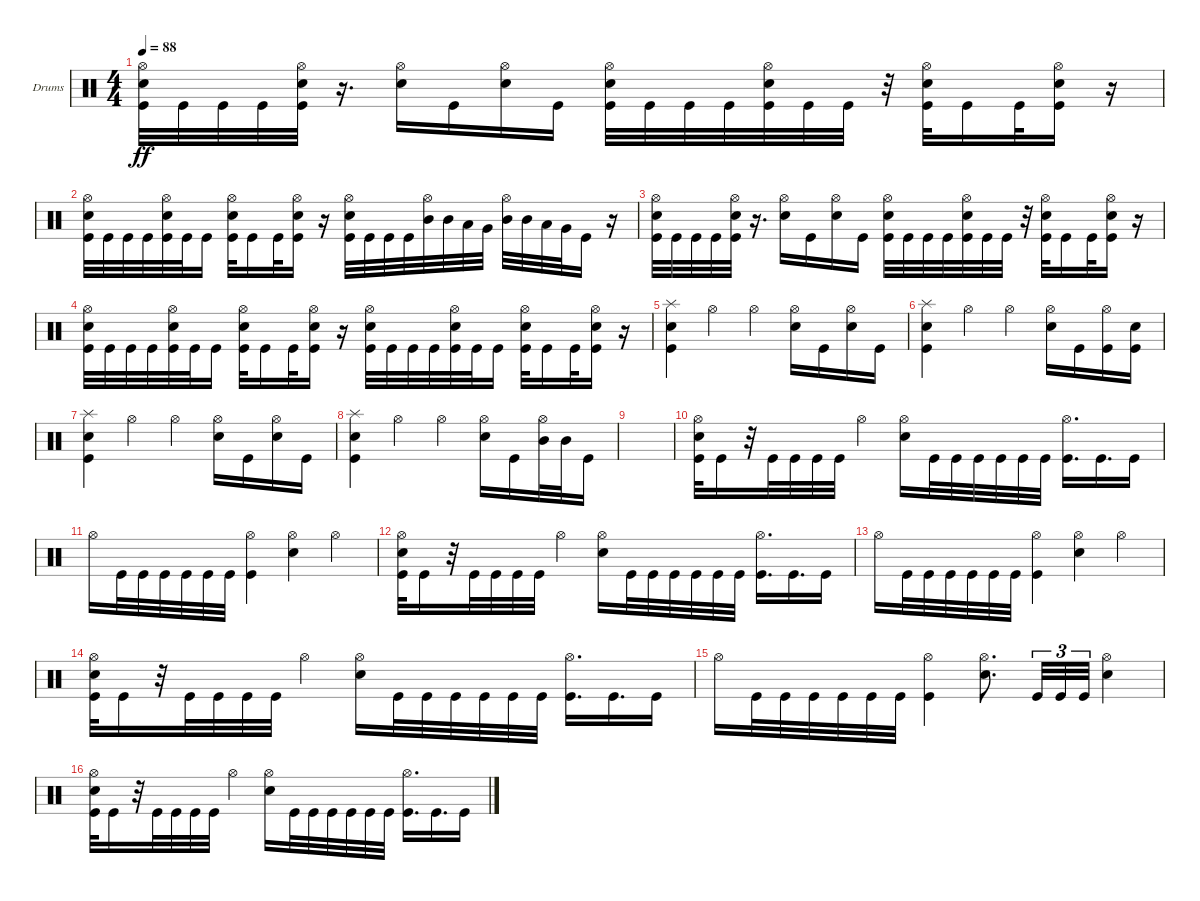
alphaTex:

\defaultSystemsLayout 4
\bracketExtendMode groupsimilarinstruments
\firstSystemTrackNameOrientation horizontal
\otherSystemsTrackNameOrientation horizontal
\track ("Drumkit" "Drums") {instrument percussion}
\staff {score}
\articulation defaults
\ts (4 4)
\tempo 88
\clef neutral
\ks c
("Snare (hit) 2" "Kick (hit)" "Hi-Hat (open)").32{dy ff} "Kick (hit)".32 "Kick (hit)".32 "Kick (hit)".32 ("Snare (hit) 2" "Kick (hit)" "Hi-Hat (open)").32 r.16{d} ("Snare (hit) 2" "Hi-Hat (open)").16 "Kick (hit)".16 ("Snare (hit) 2" "Hi-Hat (open)").16 "Kick (hit)".16 ("Snare (hit) 2" "Kick (hit)" "Hi-Hat (open)").32 "Kick (hit)".32 "Kick (hit)".32 "Kick (hit)".32 ("Snare (hit) 2" "Kick (hit)" "Hi-Hat (open)").32 "Kick (hit)".32 "Kick (hit)".32 r.32 ("Snare (hit) 2" "Kick (hit)" "Hi-Hat (open)").32 "Kick (hit)".16 "Kick (hit)".32 ("Kick (hit)" "Snare (hit) 2" "Hi-Hat (open)").16 r.16 |
("Kick (hit)" "Snare (hit) 2" "Hi-Hat (open)").32 "Kick (hit)".32 "Kick (hit)".32 "Kick (hit)".32 ("Kick (hit)" "Snare (hit) 2" "Hi-Hat (open)").32 "Kick (hit)".32 "Kick (hit)".16 ("Kick (hit)" "Snare (hit) 2" "Hi-Hat (open)").32 "Kick (hit)".16 "Kick (hit)".32 ("Kick (hit)" "Snare (hit) 2" "Hi-Hat (open)").16 r.16 ("Kick (hit)" "Snare (hit) 2" "Hi-Hat (open)").32 "Kick (hit)".32 "Kick (hit)".32 "Kick (hit)".32 ("Hi-Hat (open)" "Mid Tom (hit)").32 "Mid Tom (hit)".32 "Low Tom (hit)".32 "Very Low Tom (hit)".32 ("Hi-Hat (open)" "Mid Tom (hit)").32 "Mid Tom (hit)".32 "Low Tom (hit)".32 "Very Low Tom (hit)".32 "Kick (hit)".16 r.16 |
("Snare (hit) 2" "Kick (hit)" "Hi-Hat (open)").32 "Kick (hit)".32 "Kick (hit)".32 "Kick (hit)".32 ("Snare (hit) 2" "Kick (hit)" "Hi-Hat (open)").32 r.16{d} ("Snare (hit) 2" "Hi-Hat (open)").16 "Kick (hit)".16 ("Snare (hit) 2" "Hi-Hat (open)").16 "Kick (hit)".16 ("Snare (hit) 2" "Kick (hit)" "Hi-Hat (open)").32 "Kick (hit)".32 "Kick (hit)".32 "Kick (hit)".32 ("Snare (hit) 2" "Kick (hit)" "Hi-Hat (open)").32 "Kick (hit)".32 "Kick (hit)".32 r.32 ("Snare (hit) 2" "Kick (hit)" "Hi-Hat (open)").32 "Kick (hit)".16 "Kick (hit)".32 ("Kick (hit)" "Snare (hit) 2" "Hi-Hat (open)").16 r.16 |
("Kick (hit)" "Snare (hit) 2" "Hi-Hat (open)").32 "Kick (hit)".32 "Kick (hit)".32 "Kick (hit)".32 ("Kick (hit)" "Snare (hit) 2" "Hi-Hat (open)").32 "Kick (hit)".32 "Kick (hit)".16 ("Kick (hit)" "Snare (hit) 2" "Hi-Hat (open)").32 "Kick (hit)".16 "Kick (hit)".32 ("Kick (hit)" "Snare (hit) 2" "Hi-Hat (open)").16 r.16 ("Kick (hit)" "Snare (hit) 2" "Hi-Hat (open)").32 "Kick (hit)".32 "Kick (hit)".32 "Kick (hit)".32 ("Kick (hit)" "Snare (hit) 2" "Hi-Hat (open)").32 "Kick (hit)".32 "Kick (hit)".16 ("Kick (hit)" "Snare (hit) 2" "Hi-Hat (open)").32 "Kick (hit)".16 "Kick (hit)".32 ("Kick (hit)" "Snare (hit) 2" "Hi-Hat (open)").16 r.16 |
("Kick (hit)" "Snare (hit) 2" "Splash (hit)").4 "Hi-Hat (open)".4 "Hi-Hat (open)".4 ("Hi-Hat (open)" "Snare (hit) 2").16 "Kick (hit)".16 ("Snare (hit) 2" "Hi-Hat (open)").16 "Kick (hit)".16 |
("Kick (hit)" "Snare (hit) 2" "Splash (hit)").4 "Hi-Hat (open)".4 "Hi-Hat (open)".4 ("Hi-Hat (open)" "Snare (hit) 2").16 "Kick (hit)".16 ("Hi-Hat (open)" "Kick (hit)").16 ("Kick (hit)" "Snare (hit) 2").16 |
("Kick (hit)" "Snare (hit) 2" "Splash (hit)").4 "Hi-Hat (open)".4 "Hi-Hat (open)".4 ("Hi-Hat (open)" "Snare (hit) 2").16 "Kick (hit)".16 ("Snare (hit) 2" "Hi-Hat (open)").16 "Kick (hit)".16 |
("Kick (hit)" "Snare (hit) 2" "Splash (hit)").4 "Hi-Hat (open)".4 "Hi-Hat (open)".4 ("Hi-Hat (open)" "Snare (hit) 2").16 "Kick (hit)".16 ("Hi-Hat (open)" "Mid Tom (hit)").32 "Mid Tom (hit)".32 "Kick (hit)".16 |
|
("Kick (hit)" "Snare (hit) 2" "Hi-Hat (open)").32 "Kick (hit)".16 r.32 "Kick (hit)".32 "Kick (hit)".32 "Kick (hit)".32 "Kick (hit)".32 "Hi-Hat (open)".4 ("Snare (hit) 2" "Hi-Hat (open)").16 "Kick (hit)".32 "Kick (hit)".32 "Kick (hit)".32 "Kick (hit)".32 "Kick (hit)".32 "Kick (hit)".32 ("Kick (hit)" "Hi-Hat (open)").16{d} "Kick (hit)".16{d} "Kick (hit)".16 |
"Hi-Hat (open)".16 "Kick (hit)".32 "Kick (hit)".32 "Kick (hit)".32 "Kick (hit)".32 "Kick (hit)".32 "Kick (hit)".32 ("Kick (hit)" "Hi-Hat (open)").4 ("Snare (hit) 2" "Hi-Hat (open)").4 "Hi-Hat (open)".4 |
("Kick (hit)" "Snare (hit) 2" "Hi-Hat (open)").32 "Kick (hit)".16 r.32 "Kick (hit)".32 "Kick (hit)".32 "Kick (hit)".32 "Kick (hit)".32 "Hi-Hat (open)".4 ("Snare (hit) 2" "Hi-Hat (open)").16 "Kick (hit)".32 "Kick (hit)".32 "Kick (hit)".32 "Kick (hit)".32 "Kick (hit)".32 "Kick (hit)".32 ("Kick (hit)" "Hi-Hat (open)").16{d} "Kick (hit)".16{d} "Kick (hit)".16 |
"Hi-Hat (open)".16 "Kick (hit)".32 "Kick (hit)".32 "Kick (hit)".32 "Kick (hit)".32 "Kick (hit)".32 "Kick (hit)".32 ("Kick (hit)" "Hi-Hat (open)").4 ("Snare (hit) 2" "Hi-Hat (open)").4 "Hi-Hat (open)".4 |
("Kick (hit)" "Snare (hit) 2" "Hi-Hat (open)").32 "Kick (hit)".16 r.32 "Kick (hit)".32 "Kick (hit)".32 "Kick (hit)".32 "Kick (hit)".32 "Hi-Hat (open)".4 ("Snare (hit) 2" "Hi-Hat (open)").16 "Kick (hit)".32 "Kick (hit)".32 "Kick (hit)".32 "Kick (hit)".32 "Kick (hit)".32 "Kick (hit)".32 ("Kick (hit)" "Hi-Hat (open)").16{d} "Kick (hit)".16{d} "Kick (hit)".16 |
"Hi-Hat (open)".16 "Kick (hit)".32 "Kick (hit)".32 "Kick (hit)".32 "Kick (hit)".32 "Kick (hit)".32 "Kick (hit)".32 ("Kick (hit)" "Hi-Hat (open)").4 ("Snare (hit) 2" "Hi-Hat (open)").8{d} "Kick (hit)".32{tu (3 2)} "Kick (hit)".32{tu (3 2)} "Kick (hit)".32{tu (3 2)} ("Hi-Hat (open)" "Snare (hit) 2").4 |
("Kick (hit)" "Snare (hit) 2" "Hi-Hat (open)").32 "Kick (hit)".16 r.32 "Kick (hit)".32 "Kick (hit)".32 "Kick (hit)".32 "Kick (hit)".32 "Hi-Hat (open)".4 ("Snare (hit) 2" "Hi-Hat (open)").16 "Kick (hit)".32 "Kick (hit)".32 "Kick (hit)".32 "Kick (hit)".32 "Kick (hit)".32 "Kick (hit)".32 ("Kick (hit)" "Hi-Hat (open)").16{d} "Kick (hit)".16{d} "Kick (hit)".16
